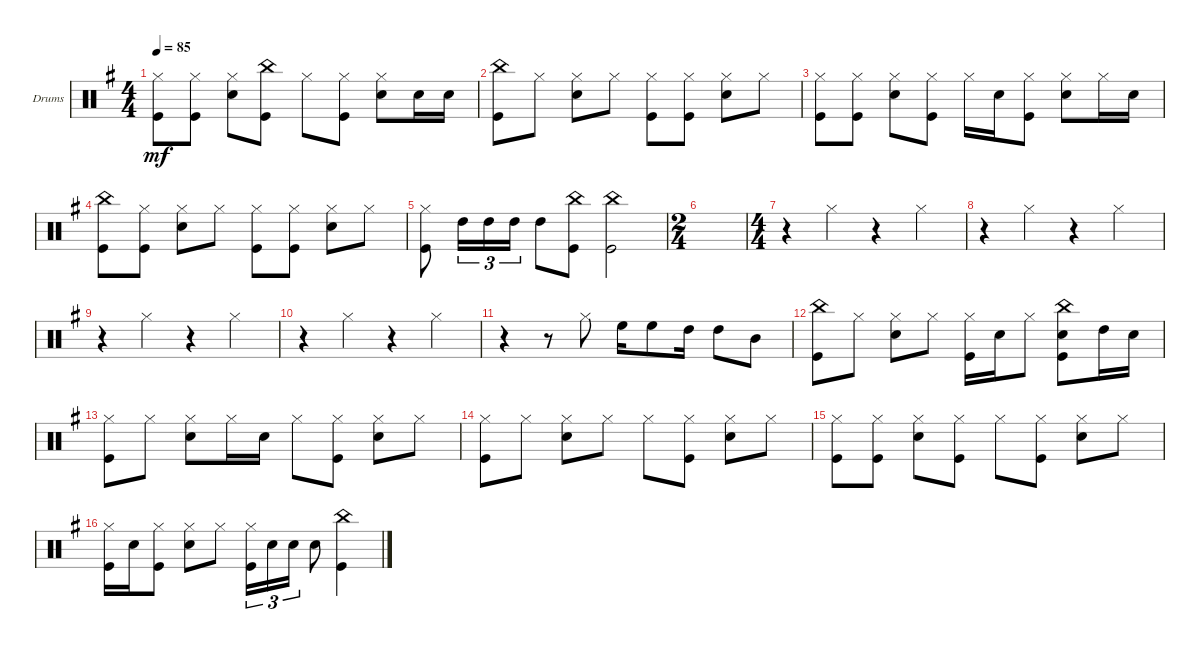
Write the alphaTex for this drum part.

\defaultSystemsLayout 4
\bracketExtendMode groupsimilarinstruments
\firstSystemTrackNameOrientation horizontal
\otherSystemsTrackNameOrientation horizontal
\track ("Ian Paice" "Drums") {instrument percussion}
\staff {score}
\articulation defaults
\ts (4 4)
\tempo 85
\clef neutral
\ks g
("Hi-Hat (closed)" "Kick (hit)").8{dy mf} ("Hi-Hat (closed)" "Kick (hit)").8 ("Hi-Hat (closed)" "Snare (hit) 2").8 ("China (hit)" "Kick (hit)").8 "Hi-Hat (closed)".8 ("Hi-Hat (closed)" "Kick (hit)").8 ("Hi-Hat (closed)" "Snare (hit) 2").8 "Snare (hit) 2".16 "Snare (hit) 2".16 |
("China (hit)" "Kick (hit)").8 "Hi-Hat (closed)".8 ("Hi-Hat (closed)" "Snare (hit) 2").8 "Hi-Hat (closed)".8 ("Hi-Hat (closed)" "Kick (hit)").8 ("Hi-Hat (closed)" "Kick (hit)").8 ("Hi-Hat (closed)" "Snare (hit) 2").8 "Hi-Hat (closed)".8 |
("Hi-Hat (closed)" "Kick (hit)").8 ("Hi-Hat (closed)" "Kick (hit)").8 ("Hi-Hat (closed)" "Snare (hit) 2").8 ("Hi-Hat (closed)" "Kick (hit)").8 "Hi-Hat (closed)".16 "Snare (hit) 2".16 ("Hi-Hat (closed)" "Kick (hit)").8 ("Hi-Hat (closed)" "Snare (hit) 2").8 "Hi-Hat (closed)".16 "Snare (hit) 2".16 |
("China (hit)" "Kick (hit)").8 ("Hi-Hat (closed)" "Kick (hit)").8 ("Hi-Hat (closed)" "Snare (hit) 2").8 "Hi-Hat (closed)".8 ("Hi-Hat (closed)" "Kick (hit)").8 ("Hi-Hat (closed)" "Kick (hit)").8 ("Hi-Hat (closed)" "Snare (hit) 2").8 "Hi-Hat (closed)".8 |
("Hi-Hat (closed)" "Kick (hit)").8 "High Tom (hit)".16{tu (3 2)} "High Tom (hit)".16{tu (3 2)} "High Tom (hit)".16{tu (3 2)} "High Tom (hit)".8 ("China (hit)" "Kick (hit)").8 ("Kick (hit)" "China (hit)").2 |
\ts (2 4)
|
\ts (4 4)
r.4 "Hi-Hat (closed)".4 r.4 "Hi-Hat (closed)".4 |
r.4 "Hi-Hat (closed)".4 r.4 "Hi-Hat (closed)".4 |
r.4 "Hi-Hat (closed)".4 r.4 "Hi-Hat (closed)".4 |
r.4 "Hi-Hat (closed)".4 r.4 "Hi-Hat (closed)".4 |
r.4 r.8 "Hi-Hat (closed)".8 "High Floor Tom (hit)".16 "High Floor Tom (hit)".8 "High Tom (hit)".16 "High Tom (hit)".8 "Mid Tom (hit)".8 |
("China (hit)" "Kick (hit)").8 "Hi-Hat (closed)".8 ("Hi-Hat (closed)" "Snare (hit) 2").8 "Hi-Hat (closed)".8 ("Hi-Hat (closed)" "Kick (hit)").16 "Snare (hit) 2".16 "Hi-Hat (closed)".8 ("China (hit)" "Snare (hit) 2" "Kick (hit)").8 "High Tom (hit)".16 "Snare (hit) 2".16 |
("Hi-Hat (closed)" "Kick (hit)").8 "Hi-Hat (closed)".8 ("Hi-Hat (closed)" "Snare (hit) 2").8 "Hi-Hat (closed)".16 "Snare (hit) 2".16 "Hi-Hat (closed)".8 ("Hi-Hat (closed)" "Kick (hit)").8 ("Snare (hit) 2" "Hi-Hat (closed)").8 "Hi-Hat (closed)".8 |
("Hi-Hat (closed)" "Kick (hit)").8 "Hi-Hat (closed)".8 ("Hi-Hat (closed)" "Snare (hit) 2").8 "Hi-Hat (closed)".8 "Hi-Hat (closed)".8 ("Hi-Hat (closed)" "Kick (hit)").8 ("Hi-Hat (closed)" "Snare (hit) 2").8 "Hi-Hat (closed)".8 |
("Hi-Hat (closed)" "Kick (hit)").8 ("Hi-Hat (closed)" "Kick (hit)").8 ("Hi-Hat (closed)" "Snare (hit) 2").8 ("Hi-Hat (closed)" "Kick (hit)").8 "Hi-Hat (closed)".8 ("Hi-Hat (closed)" "Kick (hit)").8 ("Hi-Hat (closed)" "Snare (hit) 2").8 "Hi-Hat (closed)".8 |
("Hi-Hat (closed)" "Kick (hit)").16 "Snare (hit) 2".16 ("Hi-Hat (closed)" "Kick (hit)").8 ("Snare (hit) 2" "Hi-Hat (closed)").8 "Hi-Hat (closed)".8 ("Hi-Hat (closed)" "Kick (hit)").16{tu (3 2)} "Snare (hit) 2".16{tu (3 2)} "Snare (hit) 2".16{tu (3 2)} "Snare (hit) 2".8 ("Kick (hit)" "China (hit)").4
